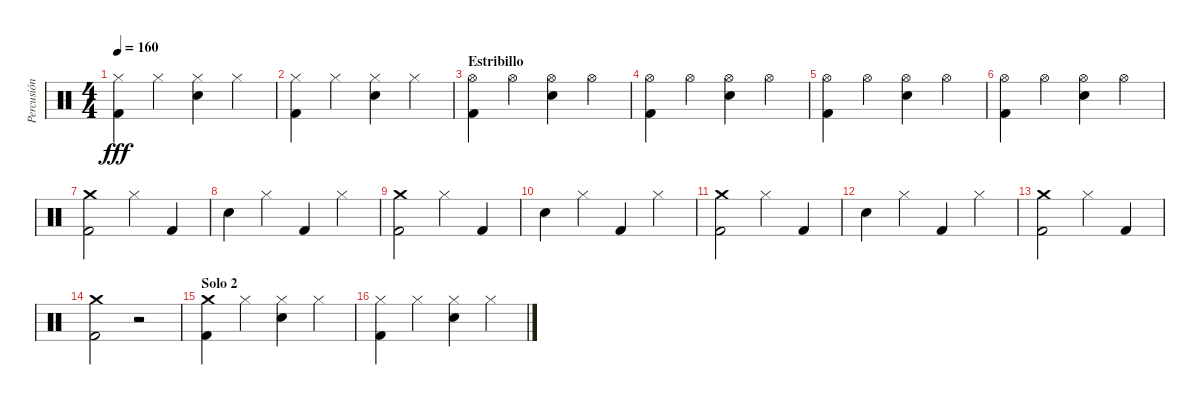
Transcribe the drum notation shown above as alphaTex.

\track ("Percusión" "Percusión") {instrument percussion}
\staff {score}
\articulation defaults
\ts (4 4)
\tempo 160
\clef neutral
\ks c
("Hi-Hat (closed)" "Kick (hit) 2").4{dy fff} "Hi-Hat (closed)".4 ("Hi-Hat (closed)" "Snare (hit) 2").4 "Hi-Hat (closed)".4 |
("Hi-Hat (closed)" "Kick (hit) 2").4 "Hi-Hat (closed)".4 ("Hi-Hat (closed)" "Snare (hit) 2").4 "Hi-Hat (closed)".4 |
\section ("" "Estribillo")
("Hi-Hat (open)" "Kick (hit) 2").4 "Hi-Hat (open)".4 ("Hi-Hat (open)" "Snare (hit) 2").4 "Hi-Hat (open)".4 |
("Hi-Hat (open)" "Kick (hit) 2").4 "Hi-Hat (open)".4 ("Hi-Hat (open)" "Snare (hit) 2").4 "Hi-Hat (open)".4 |
("Hi-Hat (open)" "Kick (hit) 2").4 "Hi-Hat (open)".4 ("Hi-Hat (open)" "Snare (hit) 2").4 "Hi-Hat (open)".4 |
("Hi-Hat (open)" "Kick (hit) 2").4 "Hi-Hat (open)".4 ("Hi-Hat (open)" "Snare (hit) 2").4 "Hi-Hat (open)".4 |
("Crash medium (hit)" "Kick (hit) 2").2 "Hi-Hat (closed)".4 "Kick (hit) 2".4 |
"Snare (hit) 2".4 "Hi-Hat (closed)".4 "Kick (hit) 2".4 "Hi-Hat (closed)".4 |
("Crash medium (hit)" "Kick (hit) 2").2 "Hi-Hat (closed)".4 "Kick (hit) 2".4 |
"Snare (hit) 2".4 "Hi-Hat (closed)".4 "Kick (hit) 2".4 "Hi-Hat (closed)".4 |
("Crash medium (hit)" "Kick (hit) 2").2 "Hi-Hat (closed)".4 "Kick (hit) 2".4 |
"Snare (hit) 2".4 "Hi-Hat (closed)".4 "Kick (hit) 2".4 "Hi-Hat (closed)".4 |
("Crash medium (hit)" "Kick (hit) 2").2 "Hi-Hat (closed)".4 "Kick (hit) 2".4 |
("Crash medium (hit)" "Kick (hit) 2").2 r.2 |
\section ("" "Solo 2")
("Crash medium (hit)" "Kick (hit) 2").4 "Hi-Hat (closed)".4 ("Hi-Hat (closed)" "Snare (hit) 2").4 "Hi-Hat (closed)".4 |
("Hi-Hat (closed)" "Kick (hit) 2").4 "Hi-Hat (closed)".4 ("Hi-Hat (closed)" "Snare (hit) 2").4 "Hi-Hat (closed)".4
